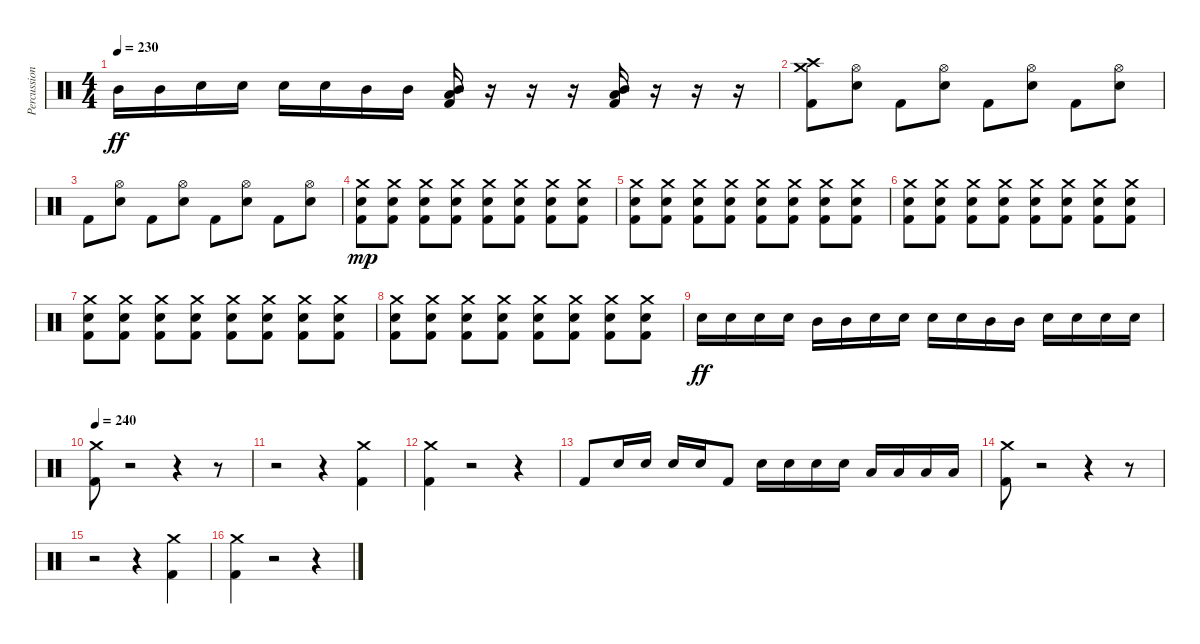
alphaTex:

\track ("Percussion" "Percussion") {instrument percussion}
\staff {score}
\articulation defaults
\ts (4 4)
\tempo 230
\clef neutral
\ks c "Mid Tom (hit)".16{dy ff} "Mid Tom (hit)".16 "Electric Snare (hit)".16 "Electric Snare (hit)".16 "Electric Snare (hit)".16 "Electric Snare (hit)".16 "Mid Tom (hit)".16 "Mid Tom (hit)".16
("Kick (hit) 2" "Low Tom (hit)" "Mid Tom (hit)").16 r.16 r.16 r.16 ("Kick (hit) 2" "Low Tom (hit)" "Mid Tom (hit)").16 r.16 r.16 r.16 |
("Kick (hit) 2" "Crash medium (hit)" "Crash high (hit)").8 ("Electric Snare (hit)" "Hi-Hat (open)").8 "Kick (hit) 2".8 ("Electric Snare (hit)" "Hi-Hat (open)").8 "Kick (hit) 2".8 ("Electric Snare (hit)" "Hi-Hat (open)").8 "Kick (hit) 2".8 ("Electric Snare (hit)" "Hi-Hat (open)").8 |
"Kick (hit) 2".8 ("Electric Snare (hit)" "Hi-Hat (open)").8 "Kick (hit) 2".8 ("Electric Snare (hit)" "Hi-Hat (open)").8 "Kick (hit) 2".8 ("Electric Snare (hit)" "Hi-Hat (open)").8 "Kick (hit) 2".8 ("Electric Snare (hit)" "Hi-Hat (open)").8 |
("Kick (hit) 2" "Electric Snare (hit)" "Crash medium (hit)").8{dy mp} ("Kick (hit) 2" "Electric Snare (hit)" "Crash medium (hit)").8 ("Kick (hit) 2" "Electric Snare (hit)" "Crash medium (hit)").8 ("Kick (hit) 2" "Electric Snare (hit)" "Crash medium (hit)").8 ("Kick (hit) 2" "Electric Snare (hit)" "Crash medium (hit)").8 ("Kick (hit) 2" "Electric Snare (hit)" "Crash medium (hit)").8 ("Kick (hit) 2" "Electric Snare (hit)" "Crash medium (hit)").8 ("Kick (hit) 2" "Electric Snare (hit)" "Crash medium (hit)").8 |
("Kick (hit) 2" "Electric Snare (hit)" "Crash medium (hit)").8 ("Kick (hit) 2" "Electric Snare (hit)" "Crash medium (hit)").8 ("Kick (hit) 2" "Electric Snare (hit)" "Crash medium (hit)").8 ("Kick (hit) 2" "Electric Snare (hit)" "Crash medium (hit)").8 ("Kick (hit) 2" "Electric Snare (hit)" "Crash medium (hit)").8 ("Kick (hit) 2" "Electric Snare (hit)" "Crash medium (hit)").8 ("Kick (hit) 2" "Electric Snare (hit)" "Crash medium (hit)").8 ("Kick (hit) 2" "Electric Snare (hit)" "Crash medium (hit)").8 |
("Kick (hit) 2" "Electric Snare (hit)" "Crash medium (hit)").8 ("Kick (hit) 2" "Electric Snare (hit)" "Crash medium (hit)").8 ("Kick (hit) 2" "Electric Snare (hit)" "Crash medium (hit)").8 ("Kick (hit) 2" "Electric Snare (hit)" "Crash medium (hit)").8 ("Kick (hit) 2" "Electric Snare (hit)" "Crash medium (hit)").8 ("Kick (hit) 2" "Electric Snare (hit)" "Crash medium (hit)").8 ("Kick (hit) 2" "Electric Snare (hit)" "Crash medium (hit)").8 ("Kick (hit) 2" "Electric Snare (hit)" "Crash medium (hit)").8 |
("Kick (hit) 2" "Electric Snare (hit)" "Crash medium (hit)").8 ("Kick (hit) 2" "Electric Snare (hit)" "Crash medium (hit)").8 ("Kick (hit) 2" "Electric Snare (hit)" "Crash medium (hit)").8 ("Kick (hit) 2" "Electric Snare (hit)" "Crash medium (hit)").8 ("Kick (hit) 2" "Electric Snare (hit)" "Crash medium (hit)").8 ("Kick (hit) 2" "Electric Snare (hit)" "Crash medium (hit)").8 ("Kick (hit) 2" "Electric Snare (hit)" "Crash medium (hit)").8 ("Kick (hit) 2" "Electric Snare (hit)" "Crash medium (hit)").8 |
("Kick (hit) 2" "Electric Snare (hit)" "Crash medium (hit)").8 ("Kick (hit) 2" "Electric Snare (hit)" "Crash medium (hit)").8 ("Kick (hit) 2" "Electric Snare (hit)" "Crash medium (hit)").8 ("Kick (hit) 2" "Electric Snare (hit)" "Crash medium (hit)").8 ("Kick (hit) 2" "Electric Snare (hit)" "Crash medium (hit)").8 ("Kick (hit) 2" "Electric Snare (hit)" "Crash medium (hit)").8 ("Kick (hit) 2" "Electric Snare (hit)" "Crash medium (hit)").8 ("Kick (hit) 2" "Electric Snare (hit)" "Crash medium (hit)").8 |
"Electric Snare (hit)".16{dy ff} "Electric Snare (hit)".16 "Electric Snare (hit)".16 "Electric Snare (hit)".16 "Mid Tom (hit)".16 "Mid Tom (hit)".16 "Electric Snare (hit)".16 "Electric Snare (hit)".16 "Electric Snare (hit)".16 "Electric Snare (hit)".16 "Mid Tom (hit)".16 "Mid Tom (hit)".16 "Electric Snare (hit)".16 "Electric Snare (hit)".16 "Electric Snare (hit)".16 "Electric Snare (hit)".16 |
\tempo 240
("Kick (hit) 2" "Crash medium (hit)").8 r.2 r.4 r.8 |
r.2 r.4 ("Kick (hit) 2" "Crash medium (hit)").4 |
("Kick (hit) 2" "Crash medium (hit)").4 r.2 r.4 |
"Kick (hit) 2".8 "Electric Snare (hit)".16 "Electric Snare (hit)".16 "Electric Snare (hit)".16 "Electric Snare (hit)".16 "Kick (hit) 2".8 "Electric Snare (hit)".16 "Electric Snare (hit)".16 "Electric Snare (hit)".16 "Electric Snare (hit)".16 "Low Tom (hit)".16 "Low Tom (hit)".16 "Low Tom (hit)".16 "Low Tom (hit)".16 |
("Kick (hit) 2" "Crash medium (hit)").8 r.2 r.4 r.8 |
r.2 r.4 ("Kick (hit) 2" "Crash medium (hit)").4 |
("Kick (hit) 2" "Crash medium (hit)").4 r.2 r.4
